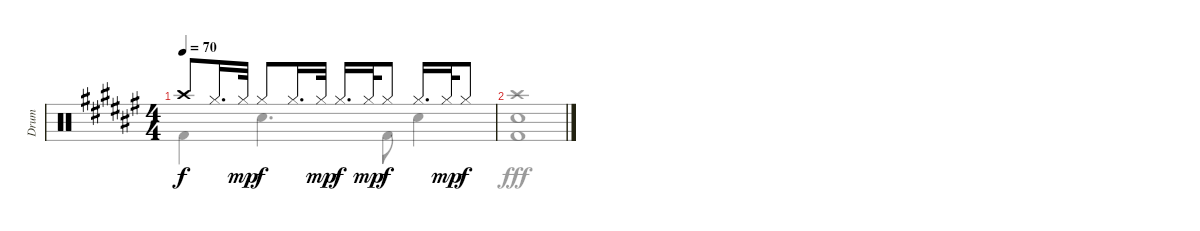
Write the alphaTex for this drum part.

\track ("Drum" "Drum") {instrument percussion}
\staff {score}
\articulation defaults
\voice
\ts (4 4)
\tempo 70
\clef neutral
\ks f# "Crash high (hit)".8{dy f} "Hi-Hat (closed)".16{d} "Hi-Hat (closed)".32{dy mp} "Hi-Hat (closed)".8{dy f} "Hi-Hat (closed)".16{d} "Hi-Hat (closed)".32{dy mp} "Hi-Hat (closed)".16{d dy f} "Hi-Hat (closed)".32{dy mp} "Hi-Hat (closed)".8{dy f} "Hi-Hat (closed)".16{d} "Hi-Hat (closed)".32{dy mp} "Hi-Hat (closed)".8{dy f}
|
\voice
\clef neutral
\ks f# "Kick (hit) 2".4{dy f} "Snare (hit) 2".4{d} "Kick (hit) 2".8 "Snare (hit) 2".4
|
("Crash high (hit)" "Snare (hit) 2" "Kick (hit) 2").1{dy fff}
